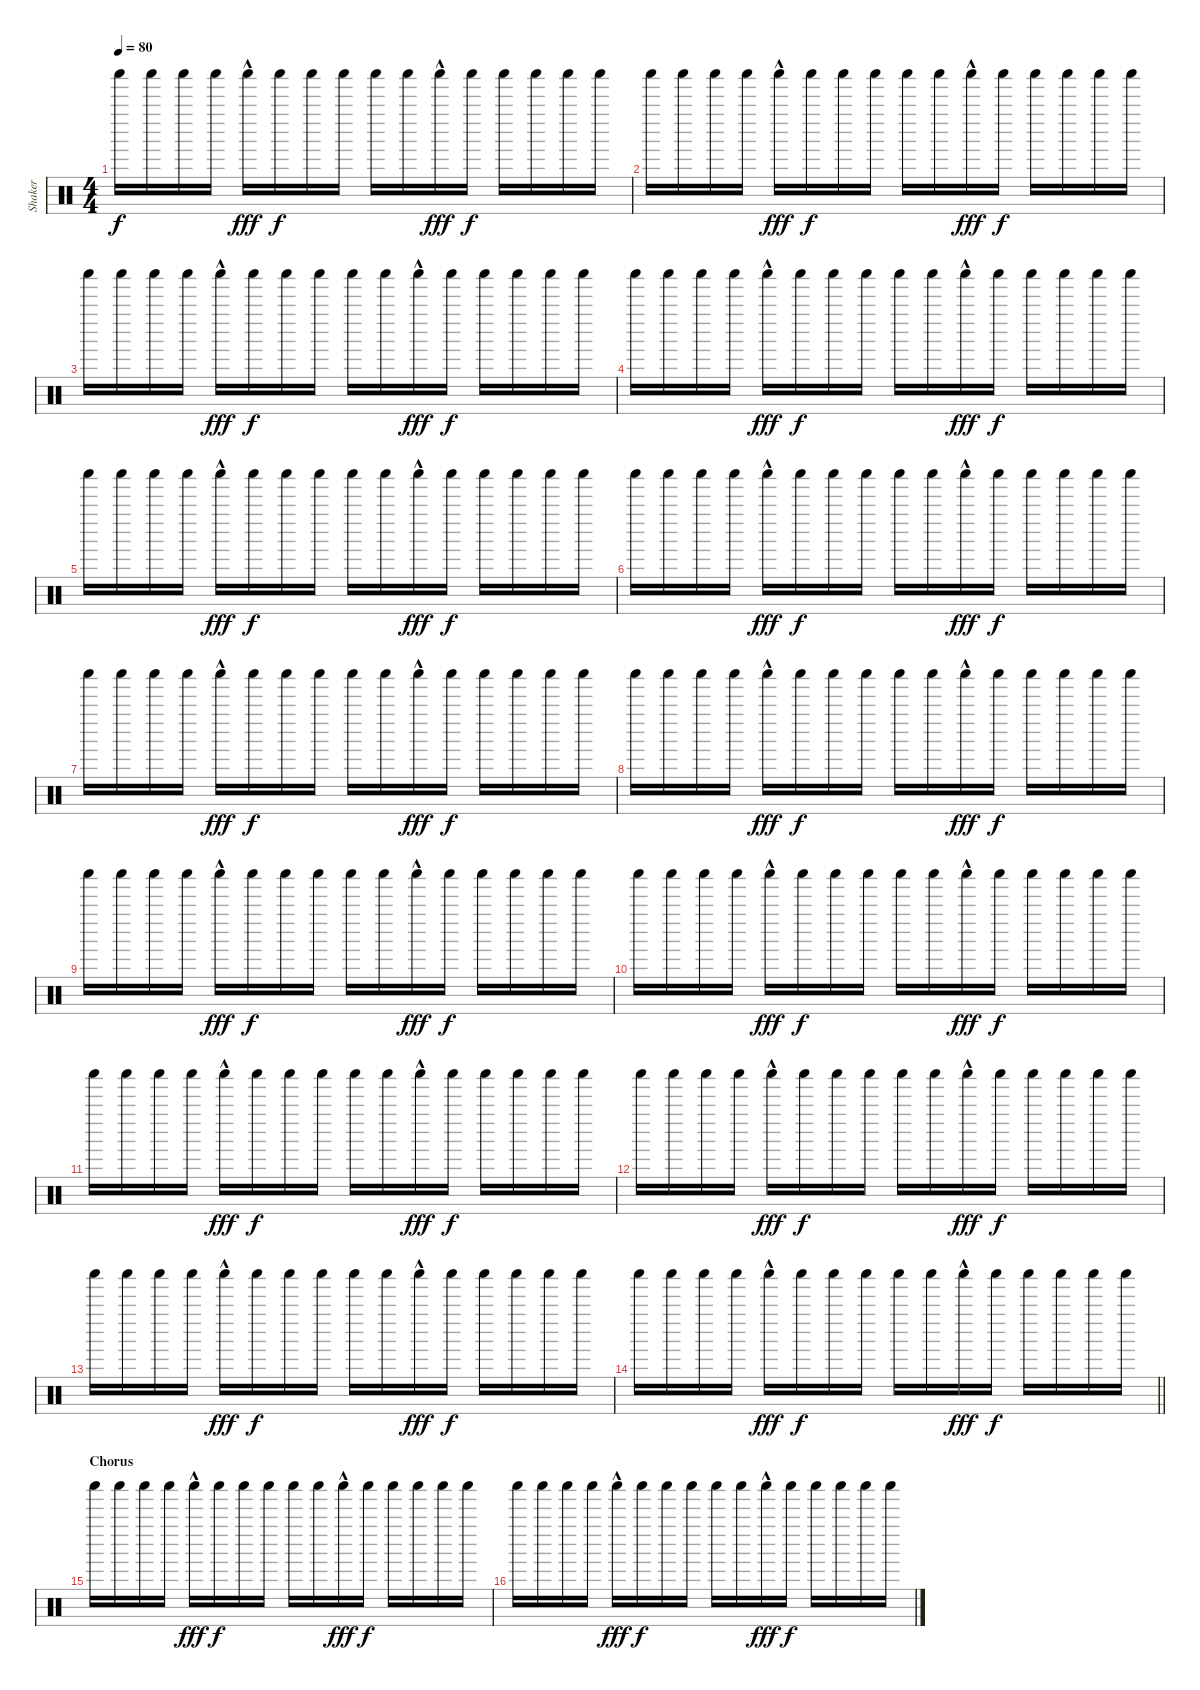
\track ("Shaker" "Shaker") {instrument percussion}
\staff {score}
\articulation defaults
\ts (4 4)
\tempo 80
\clef neutral
\ks c "Shaker (hit)".16{dy f} "Shaker (hit)".16 "Shaker (hit)".16 "Shaker (hit)".16 "Shaker (hit)"{hac}.16{dy fff} "Shaker (hit)".16{dy f} "Shaker (hit)".16 "Shaker (hit)".16 "Shaker (hit)".16 "Shaker (hit)".16 "Shaker (hit)"{hac}.16{dy fff} "Shaker (hit)".16{dy f} "Shaker (hit)".16 "Shaker (hit)".16 "Shaker (hit)".16 "Shaker (hit)".16
|
"Shaker (hit)".16 "Shaker (hit)".16 "Shaker (hit)".16 "Shaker (hit)".16 "Shaker (hit)"{hac}.16{dy fff} "Shaker (hit)".16{dy f} "Shaker (hit)".16 "Shaker (hit)".16 "Shaker (hit)".16 "Shaker (hit)".16 "Shaker (hit)"{hac}.16{dy fff} "Shaker (hit)".16{dy f} "Shaker (hit)".16 "Shaker (hit)".16 "Shaker (hit)".16 "Shaker (hit)".16 |
"Shaker (hit)".16 "Shaker (hit)".16 "Shaker (hit)".16 "Shaker (hit)".16 "Shaker (hit)"{hac}.16{dy fff} "Shaker (hit)".16{dy f} "Shaker (hit)".16 "Shaker (hit)".16 "Shaker (hit)".16 "Shaker (hit)".16 "Shaker (hit)"{hac}.16{dy fff} "Shaker (hit)".16{dy f} "Shaker (hit)".16 "Shaker (hit)".16 "Shaker (hit)".16 "Shaker (hit)".16 |
"Shaker (hit)".16 "Shaker (hit)".16 "Shaker (hit)".16 "Shaker (hit)".16 "Shaker (hit)"{hac}.16{dy fff} "Shaker (hit)".16{dy f} "Shaker (hit)".16 "Shaker (hit)".16 "Shaker (hit)".16 "Shaker (hit)".16 "Shaker (hit)"{hac}.16{dy fff} "Shaker (hit)".16{dy f} "Shaker (hit)".16 "Shaker (hit)".16 "Shaker (hit)".16 "Shaker (hit)".16 |
"Shaker (hit)".16 "Shaker (hit)".16 "Shaker (hit)".16 "Shaker (hit)".16 "Shaker (hit)"{hac}.16{dy fff} "Shaker (hit)".16{dy f} "Shaker (hit)".16 "Shaker (hit)".16 "Shaker (hit)".16 "Shaker (hit)".16 "Shaker (hit)"{hac}.16{dy fff} "Shaker (hit)".16{dy f} "Shaker (hit)".16 "Shaker (hit)".16 "Shaker (hit)".16 "Shaker (hit)".16 |
"Shaker (hit)".16 "Shaker (hit)".16 "Shaker (hit)".16 "Shaker (hit)".16 "Shaker (hit)"{hac}.16{dy fff} "Shaker (hit)".16{dy f} "Shaker (hit)".16 "Shaker (hit)".16 "Shaker (hit)".16 "Shaker (hit)".16 "Shaker (hit)"{hac}.16{dy fff} "Shaker (hit)".16{dy f} "Shaker (hit)".16 "Shaker (hit)".16 "Shaker (hit)".16 "Shaker (hit)".16 |
"Shaker (hit)".16 "Shaker (hit)".16 "Shaker (hit)".16 "Shaker (hit)".16 "Shaker (hit)"{hac}.16{dy fff} "Shaker (hit)".16{dy f} "Shaker (hit)".16 "Shaker (hit)".16 "Shaker (hit)".16 "Shaker (hit)".16 "Shaker (hit)"{hac}.16{dy fff} "Shaker (hit)".16{dy f} "Shaker (hit)".16 "Shaker (hit)".16 "Shaker (hit)".16 "Shaker (hit)".16 |
"Shaker (hit)".16 "Shaker (hit)".16 "Shaker (hit)".16 "Shaker (hit)".16 "Shaker (hit)"{hac}.16{dy fff} "Shaker (hit)".16{dy f} "Shaker (hit)".16 "Shaker (hit)".16 "Shaker (hit)".16 "Shaker (hit)".16 "Shaker (hit)"{hac}.16{dy fff} "Shaker (hit)".16{dy f} "Shaker (hit)".16 "Shaker (hit)".16 "Shaker (hit)".16 "Shaker (hit)".16 |
"Shaker (hit)".16 "Shaker (hit)".16 "Shaker (hit)".16 "Shaker (hit)".16 "Shaker (hit)"{hac}.16{dy fff} "Shaker (hit)".16{dy f} "Shaker (hit)".16 "Shaker (hit)".16 "Shaker (hit)".16 "Shaker (hit)".16 "Shaker (hit)"{hac}.16{dy fff} "Shaker (hit)".16{dy f} "Shaker (hit)".16 "Shaker (hit)".16 "Shaker (hit)".16 "Shaker (hit)".16 |
"Shaker (hit)".16 "Shaker (hit)".16 "Shaker (hit)".16 "Shaker (hit)".16 "Shaker (hit)"{hac}.16{dy fff} "Shaker (hit)".16{dy f} "Shaker (hit)".16 "Shaker (hit)".16 "Shaker (hit)".16 "Shaker (hit)".16 "Shaker (hit)"{hac}.16{dy fff} "Shaker (hit)".16{dy f} "Shaker (hit)".16 "Shaker (hit)".16 "Shaker (hit)".16 "Shaker (hit)".16 |
"Shaker (hit)".16 "Shaker (hit)".16 "Shaker (hit)".16 "Shaker (hit)".16 "Shaker (hit)"{hac}.16{dy fff} "Shaker (hit)".16{dy f} "Shaker (hit)".16 "Shaker (hit)".16 "Shaker (hit)".16 "Shaker (hit)".16 "Shaker (hit)"{hac}.16{dy fff} "Shaker (hit)".16{dy f} "Shaker (hit)".16 "Shaker (hit)".16 "Shaker (hit)".16 "Shaker (hit)".16 |
"Shaker (hit)".16 "Shaker (hit)".16 "Shaker (hit)".16 "Shaker (hit)".16 "Shaker (hit)"{hac}.16{dy fff} "Shaker (hit)".16{dy f} "Shaker (hit)".16 "Shaker (hit)".16 "Shaker (hit)".16 "Shaker (hit)".16 "Shaker (hit)"{hac}.16{dy fff} "Shaker (hit)".16{dy f} "Shaker (hit)".16 "Shaker (hit)".16 "Shaker (hit)".16 "Shaker (hit)".16 |
"Shaker (hit)".16 "Shaker (hit)".16 "Shaker (hit)".16 "Shaker (hit)".16 "Shaker (hit)"{hac}.16{dy fff} "Shaker (hit)".16{dy f} "Shaker (hit)".16 "Shaker (hit)".16 "Shaker (hit)".16 "Shaker (hit)".16 "Shaker (hit)"{hac}.16{dy fff} "Shaker (hit)".16{dy f} "Shaker (hit)".16 "Shaker (hit)".16 "Shaker (hit)".16 "Shaker (hit)".16 |
\barLineRight lightlight "Shaker (hit)".16 "Shaker (hit)".16 "Shaker (hit)".16 "Shaker (hit)".16 "Shaker (hit)"{hac}.16{dy fff} "Shaker (hit)".16{dy f} "Shaker (hit)".16 "Shaker (hit)".16 "Shaker (hit)".16 "Shaker (hit)".16 "Shaker (hit)"{hac}.16{dy fff} "Shaker (hit)".16{dy f} "Shaker (hit)".16 "Shaker (hit)".16 "Shaker (hit)".16 "Shaker (hit)".16
|
\section ("" "Chorus")
"Shaker (hit)".16 "Shaker (hit)".16 "Shaker (hit)".16 "Shaker (hit)".16 "Shaker (hit)"{hac}.16{dy fff} "Shaker (hit)".16{dy f} "Shaker (hit)".16 "Shaker (hit)".16 "Shaker (hit)".16 "Shaker (hit)".16 "Shaker (hit)"{hac}.16{dy fff} "Shaker (hit)".16{dy f} "Shaker (hit)".16 "Shaker (hit)".16 "Shaker (hit)".16 "Shaker (hit)".16 |
"Shaker (hit)".16 "Shaker (hit)".16 "Shaker (hit)".16 "Shaker (hit)".16 "Shaker (hit)"{hac}.16{dy fff} "Shaker (hit)".16{dy f} "Shaker (hit)".16 "Shaker (hit)".16 "Shaker (hit)".16 "Shaker (hit)".16 "Shaker (hit)"{hac}.16{dy fff} "Shaker (hit)".16{dy f} "Shaker (hit)".16 "Shaker (hit)".16 "Shaker (hit)".16 "Shaker (hit)".16
